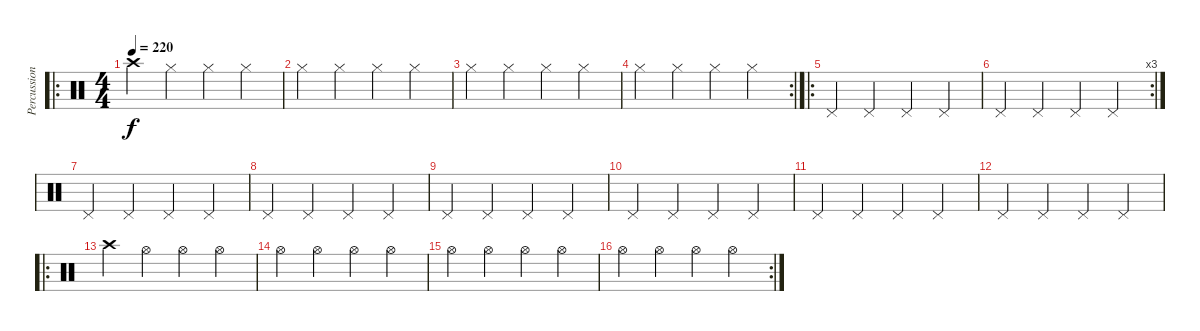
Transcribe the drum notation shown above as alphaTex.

\track ("Percussion" "Percussion") {instrument percussion}
\staff {score}
\articulation defaults
\ro
\ts (4 4)
\tempo 220
\clef neutral
\ks c "Crash high (hit)".4{dy f} "Hi-Hat (closed)".4 "Hi-Hat (closed)".4 "Hi-Hat (closed)".4
|
"Hi-Hat (closed)".4 "Hi-Hat (closed)".4 "Hi-Hat (closed)".4 "Hi-Hat (closed)".4 |
"Hi-Hat (closed)".4 "Hi-Hat (closed)".4 "Hi-Hat (closed)".4 "Hi-Hat (closed)".4 |
\rc 2 "Hi-Hat (closed)".4 "Hi-Hat (closed)".4 "Hi-Hat (closed)".4 "Hi-Hat (closed)".4
|
\ro "Pedal Hi-Hat (hit)".4 "Pedal Hi-Hat (hit)".4 "Pedal Hi-Hat (hit)".4 "Pedal Hi-Hat (hit)".4
|
\rc 3 "Pedal Hi-Hat (hit)".4 "Pedal Hi-Hat (hit)".4 "Pedal Hi-Hat (hit)".4 "Pedal Hi-Hat (hit)".4
|
"Pedal Hi-Hat (hit)".4 "Pedal Hi-Hat (hit)".4 "Pedal Hi-Hat (hit)".4 "Pedal Hi-Hat (hit)".4 |
"Pedal Hi-Hat (hit)".4 "Pedal Hi-Hat (hit)".4 "Pedal Hi-Hat (hit)".4 "Pedal Hi-Hat (hit)".4 |
"Pedal Hi-Hat (hit)".4 "Pedal Hi-Hat (hit)".4 "Pedal Hi-Hat (hit)".4 "Pedal Hi-Hat (hit)".4 |
"Pedal Hi-Hat (hit)".4 "Pedal Hi-Hat (hit)".4 "Pedal Hi-Hat (hit)".4 "Pedal Hi-Hat (hit)".4 |
"Pedal Hi-Hat (hit)".4 "Pedal Hi-Hat (hit)".4 "Pedal Hi-Hat (hit)".4 "Pedal Hi-Hat (hit)".4 |
"Pedal Hi-Hat (hit)".4 "Pedal Hi-Hat (hit)".4 "Pedal Hi-Hat (hit)".4 "Pedal Hi-Hat (hit)".4 |
\ro "Crash high (hit)".4 "Hi-Hat (open)".4 "Hi-Hat (open)".4 "Hi-Hat (open)".4
|
"Hi-Hat (open)".4 "Hi-Hat (open)".4 "Hi-Hat (open)".4 "Hi-Hat (open)".4 |
"Hi-Hat (open)".4 "Hi-Hat (open)".4 "Hi-Hat (open)".4 "Hi-Hat (open)".4 |
\rc 2 "Hi-Hat (open)".4 "Hi-Hat (open)".4 "Hi-Hat (open)".4 "Hi-Hat (open)".4
